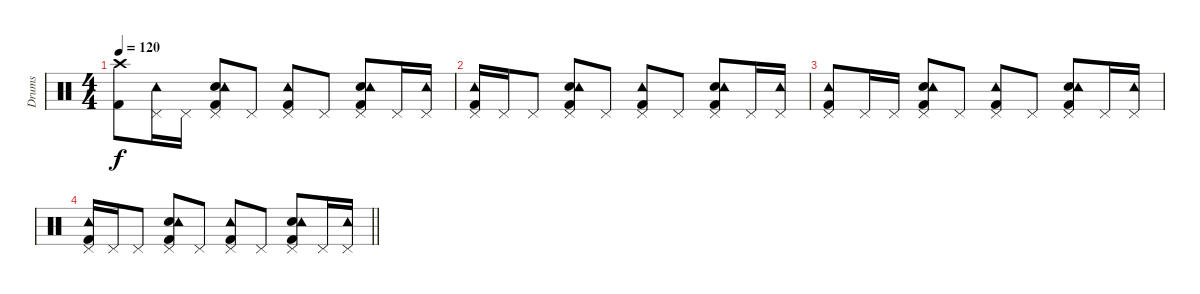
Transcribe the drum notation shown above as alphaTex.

\track ("Drums" "Drums") {instrument percussion}
\staff {score}
\articulation defaults
\ts (4 4)
\tempo 120
\clef neutral
\ks c
("Kick (hit) 2" "Crash high (hit)").8{dy f} ("Tambourine (hit)" "Pedal Hi-Hat (hit)").16 "Pedal Hi-Hat (hit)".16 ("Kick (hit) 2" "Snare (hit) 2" "Tambourine (hit)" "Pedal Hi-Hat (hit)").8 "Pedal Hi-Hat (hit)".8 ("Kick (hit) 2" "Tambourine (hit)" "Pedal Hi-Hat (hit)").8 "Pedal Hi-Hat (hit)".8 ("Kick (hit) 2" "Snare (hit) 2" "Tambourine (hit)" "Pedal Hi-Hat (hit)").8 "Pedal Hi-Hat (hit)".16 ("Tambourine (hit)" "Pedal Hi-Hat (hit)").16 |
("Kick (hit) 2" "Tambourine (hit)" "Pedal Hi-Hat (hit)").16 "Pedal Hi-Hat (hit)".16 "Pedal Hi-Hat (hit)".8 ("Kick (hit) 2" "Snare (hit) 2" "Tambourine (hit)" "Pedal Hi-Hat (hit)").8 "Pedal Hi-Hat (hit)".8 ("Kick (hit) 2" "Tambourine (hit)" "Pedal Hi-Hat (hit)").8 "Pedal Hi-Hat (hit)".8 ("Kick (hit) 2" "Snare (hit) 2" "Tambourine (hit)" "Pedal Hi-Hat (hit)").8 "Pedal Hi-Hat (hit)".16 ("Tambourine (hit)" "Pedal Hi-Hat (hit)").16 |
("Kick (hit) 2" "Tambourine (hit)" "Pedal Hi-Hat (hit)").8 "Pedal Hi-Hat (hit)".16 "Pedal Hi-Hat (hit)".16 ("Kick (hit) 2" "Snare (hit) 2" "Tambourine (hit)" "Pedal Hi-Hat (hit)").8 "Pedal Hi-Hat (hit)".8 ("Kick (hit) 2" "Tambourine (hit)" "Pedal Hi-Hat (hit)").8 "Pedal Hi-Hat (hit)".8 ("Kick (hit) 2" "Snare (hit) 2" "Tambourine (hit)" "Pedal Hi-Hat (hit)").8 "Pedal Hi-Hat (hit)".16 ("Tambourine (hit)" "Pedal Hi-Hat (hit)").16 |
\barLineRight lightlight
("Kick (hit) 2" "Tambourine (hit)" "Pedal Hi-Hat (hit)").16 "Pedal Hi-Hat (hit)".16 "Pedal Hi-Hat (hit)".8 ("Kick (hit) 2" "Snare (hit) 2" "Tambourine (hit)" "Pedal Hi-Hat (hit)").8 "Pedal Hi-Hat (hit)".8 ("Kick (hit) 2" "Tambourine (hit)" "Pedal Hi-Hat (hit)").8 "Pedal Hi-Hat (hit)".8 ("Kick (hit) 2" "Snare (hit) 2" "Tambourine (hit)" "Pedal Hi-Hat (hit)").8 "Pedal Hi-Hat (hit)".16 ("Tambourine (hit)" "Pedal Hi-Hat (hit)").16
